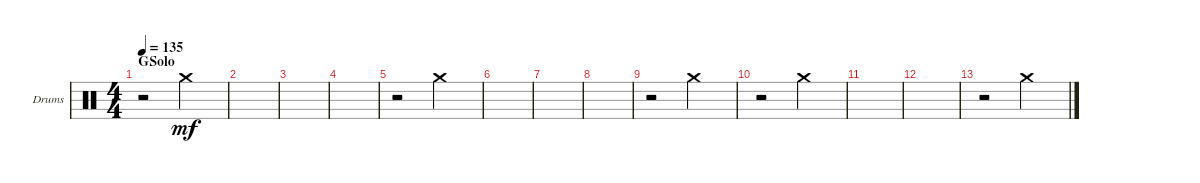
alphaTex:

\bracketExtendMode groupsimilarinstruments
\firstSystemTrackNameOrientation horizontal
\otherSystemsTrackNameOrientation horizontal
\track ("OH" "Drums") {instrument percussion}
\staff {score}
\articulation defaults
\ts (4 4)
\section ("" "GSolo")
\tempo 135
\clef neutral
\ks c
r.2{dy mf} "Crash medium (hit)".2 |
|
|
|
r.2 "Crash medium (hit)".2 |
|
|
|
r.2 "Crash medium (hit)".2 |
r.2 "Crash medium (hit)".2 |
|
|
r.2 "Crash medium (hit)".2
